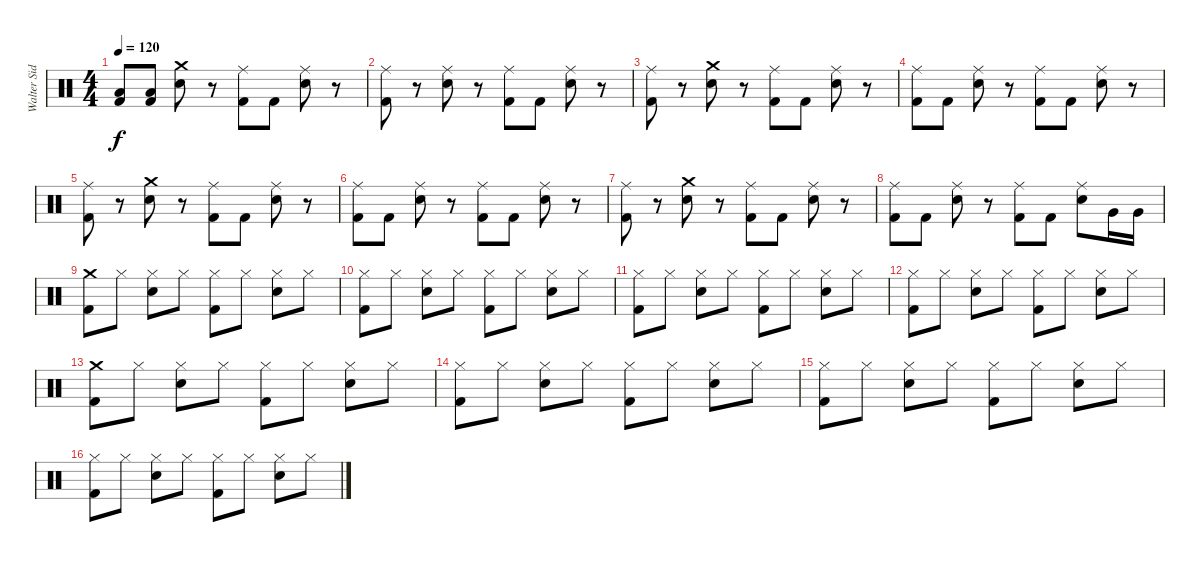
\track ("Walter Sidotti" "Walter Sid") {instrument percussion}
\staff {score}
\articulation defaults
\ts (4 4)
\tempo 120
\clef neutral
\ks c
("Kick (hit) 2" "Low Tom (hit)").8{dy f} ("Kick (hit) 2" "Low Tom (hit)").8 ("Electric Snare (hit)" "Crash medium (hit)").8 r.8 ("Kick (hit) 2" "Ride (middle)").8 "Kick (hit) 2".8 ("Electric Snare (hit)" "Ride (middle)").8 r.8 |
("Kick (hit) 2" "Ride (middle)").8 r.8 ("Electric Snare (hit)" "Ride (middle)").8 r.8 ("Kick (hit) 2" "Ride (middle)").8 "Kick (hit) 2".8 ("Electric Snare (hit)" "Ride (middle)").8 r.8 |
("Kick (hit) 2" "Ride (middle)").8 r.8 ("Electric Snare (hit)" "Crash medium (hit)").8 r.8 ("Kick (hit) 2" "Ride (middle)").8 "Kick (hit) 2".8 ("Electric Snare (hit)" "Ride (middle)").8 r.8 |
("Kick (hit) 2" "Ride (middle)").8 "Kick (hit) 2".8 ("Electric Snare (hit)" "Ride (middle)").8 r.8 ("Kick (hit) 2" "Ride (middle)").8 "Kick (hit) 2".8 ("Electric Snare (hit)" "Ride (middle)").8 r.8 |
("Kick (hit) 2" "Ride (middle)").8 r.8 ("Electric Snare (hit)" "Crash medium (hit)").8 r.8 ("Kick (hit) 2" "Ride (middle)").8 "Kick (hit) 2".8 ("Electric Snare (hit)" "Ride (middle)").8 r.8 |
("Kick (hit) 2" "Ride (middle)").8 "Kick (hit) 2".8 ("Electric Snare (hit)" "Ride (middle)").8 r.8 ("Kick (hit) 2" "Ride (middle)").8 "Kick (hit) 2".8 ("Electric Snare (hit)" "Ride (middle)").8 r.8 |
("Kick (hit) 2" "Ride (middle)").8 r.8 ("Electric Snare (hit)" "Crash medium (hit)").8 r.8 ("Kick (hit) 2" "Ride (middle)").8 "Kick (hit) 2".8 ("Electric Snare (hit)" "Ride (middle)").8 r.8 |
("Kick (hit) 2" "Ride (middle)").8 "Kick (hit) 2".8 ("Electric Snare (hit)" "Ride (middle)").8 r.8 ("Kick (hit) 2" "Ride (middle)").8 "Kick (hit) 2".8 ("Electric Snare (hit)" "Ride (middle)").8 "Very Low Tom (hit)".16 "Very Low Tom (hit)".16 |
("Kick (hit) 2" "Crash medium (hit)").8 "Hi-Hat (closed)".8 ("Electric Snare (hit)" "Hi-Hat (closed)").8 "Hi-Hat (closed)".8 ("Kick (hit) 2" "Hi-Hat (closed)").8 "Hi-Hat (closed)".8 ("Electric Snare (hit)" "Hi-Hat (closed)").8 "Hi-Hat (closed)".8 |
("Kick (hit) 2" "Hi-Hat (closed)").8 "Hi-Hat (closed)".8 ("Electric Snare (hit)" "Hi-Hat (closed)").8 "Hi-Hat (closed)".8 ("Kick (hit) 2" "Hi-Hat (closed)").8 "Hi-Hat (closed)".8 ("Electric Snare (hit)" "Hi-Hat (closed)").8 "Hi-Hat (closed)".8 |
("Kick (hit) 2" "Hi-Hat (closed)").8 "Hi-Hat (closed)".8 ("Electric Snare (hit)" "Hi-Hat (closed)").8 "Hi-Hat (closed)".8 ("Kick (hit) 2" "Hi-Hat (closed)").8 "Hi-Hat (closed)".8 ("Electric Snare (hit)" "Hi-Hat (closed)").8 "Hi-Hat (closed)".8 |
("Kick (hit) 2" "Hi-Hat (closed)").8 "Hi-Hat (closed)".8 ("Electric Snare (hit)" "Hi-Hat (closed)").8 "Hi-Hat (closed)".8 ("Kick (hit) 2" "Hi-Hat (closed)").8 "Hi-Hat (closed)".8 ("Electric Snare (hit)" "Hi-Hat (closed)").8 "Hi-Hat (closed)".8 |
("Kick (hit) 2" "Crash medium (hit)").8 "Hi-Hat (closed)".8 ("Electric Snare (hit)" "Hi-Hat (closed)").8 "Hi-Hat (closed)".8 ("Kick (hit) 2" "Hi-Hat (closed)").8 "Hi-Hat (closed)".8 ("Electric Snare (hit)" "Hi-Hat (closed)").8 "Hi-Hat (closed)".8 |
("Kick (hit) 2" "Hi-Hat (closed)").8 "Hi-Hat (closed)".8 ("Electric Snare (hit)" "Hi-Hat (closed)").8 "Hi-Hat (closed)".8 ("Kick (hit) 2" "Hi-Hat (closed)").8 "Hi-Hat (closed)".8 ("Electric Snare (hit)" "Hi-Hat (closed)").8 "Hi-Hat (closed)".8 |
("Kick (hit) 2" "Hi-Hat (closed)").8 "Hi-Hat (closed)".8 ("Electric Snare (hit)" "Hi-Hat (closed)").8 "Hi-Hat (closed)".8 ("Kick (hit) 2" "Hi-Hat (closed)").8 "Hi-Hat (closed)".8 ("Electric Snare (hit)" "Hi-Hat (closed)").8 "Hi-Hat (closed)".8 |
("Kick (hit) 2" "Hi-Hat (closed)").8 "Hi-Hat (closed)".8 ("Electric Snare (hit)" "Hi-Hat (closed)").8 "Hi-Hat (closed)".8 ("Kick (hit) 2" "Hi-Hat (closed)").8 "Hi-Hat (closed)".8 ("Electric Snare (hit)" "Hi-Hat (closed)").8 "Hi-Hat (closed)".8
